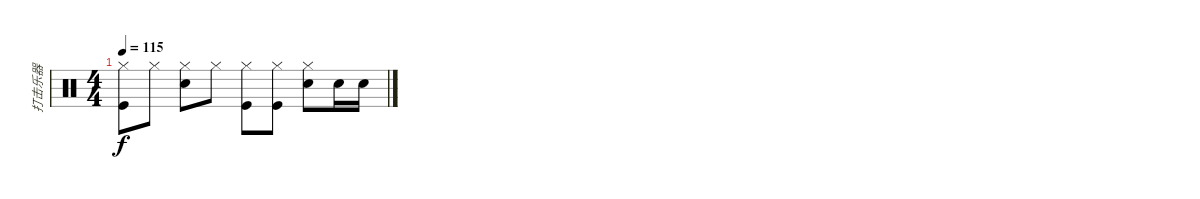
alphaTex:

\track ("打击乐器" "打击乐器") {instrument percussion}
\staff {score}
\articulation defaults
\ts (4 4)
\tempo 115
\clef neutral
\ks c
("Hi-Hat (closed)" "Kick (hit)").8{dy f} "Hi-Hat (closed)".8 ("Hi-Hat (closed)" "Snare (hit) 2").8 "Hi-Hat (closed)".8 ("Hi-Hat (closed)" "Kick (hit)").8 ("Hi-Hat (closed)" "Kick (hit)").8 ("Hi-Hat (closed)" "Snare (hit) 2").8 "Snare (hit) 2".16 "Snare (hit) 2".16
